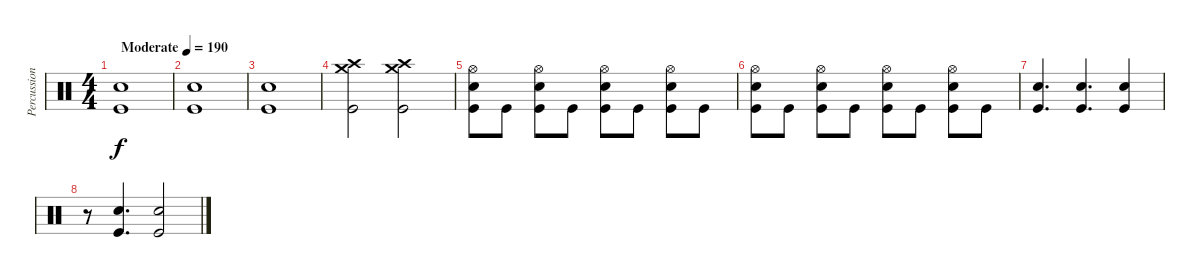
\track ("Percussion" "Percussion") {instrument percussion}
\staff {score}
\articulation defaults
\ts (4 4)
\tempo (190 "Moderate")
\clef neutral
\ks c
("Snare (hit) 2" "Kick (hit)").1{dy f} |
("Snare (hit) 2" "Kick (hit)").1 |
("Snare (hit) 2" "Kick (hit)").1 |
("Crash medium (hit)" "Crash high (hit)" "Kick (hit)").2 ("Crash medium (hit)" "Crash high (hit)" "Kick (hit)").2 |
("Hi-Hat (open)" "Snare (hit) 2" "Kick (hit)").8 "Kick (hit)".8 ("Hi-Hat (open)" "Snare (hit) 2" "Kick (hit)").8 "Kick (hit)".8 ("Hi-Hat (open)" "Snare (hit) 2" "Kick (hit)").8 "Kick (hit)".8 ("Hi-Hat (open)" "Snare (hit) 2" "Kick (hit)").8 "Kick (hit)".8 |
("Hi-Hat (open)" "Snare (hit) 2" "Kick (hit)").8 "Kick (hit)".8 ("Hi-Hat (open)" "Snare (hit) 2" "Kick (hit)").8 "Kick (hit)".8 ("Hi-Hat (open)" "Snare (hit) 2" "Kick (hit)").8 "Kick (hit)".8 ("Hi-Hat (open)" "Snare (hit) 2" "Kick (hit)").8 "Kick (hit)".8 |
("Snare (hit) 2" "Kick (hit)").4{d} ("Snare (hit) 2" "Kick (hit)").4{d} ("Snare (hit) 2" "Kick (hit)").4 |
r.8 ("Snare (hit) 2" "Kick (hit)").4{d} ("Snare (hit) 2" "Kick (hit)").2
